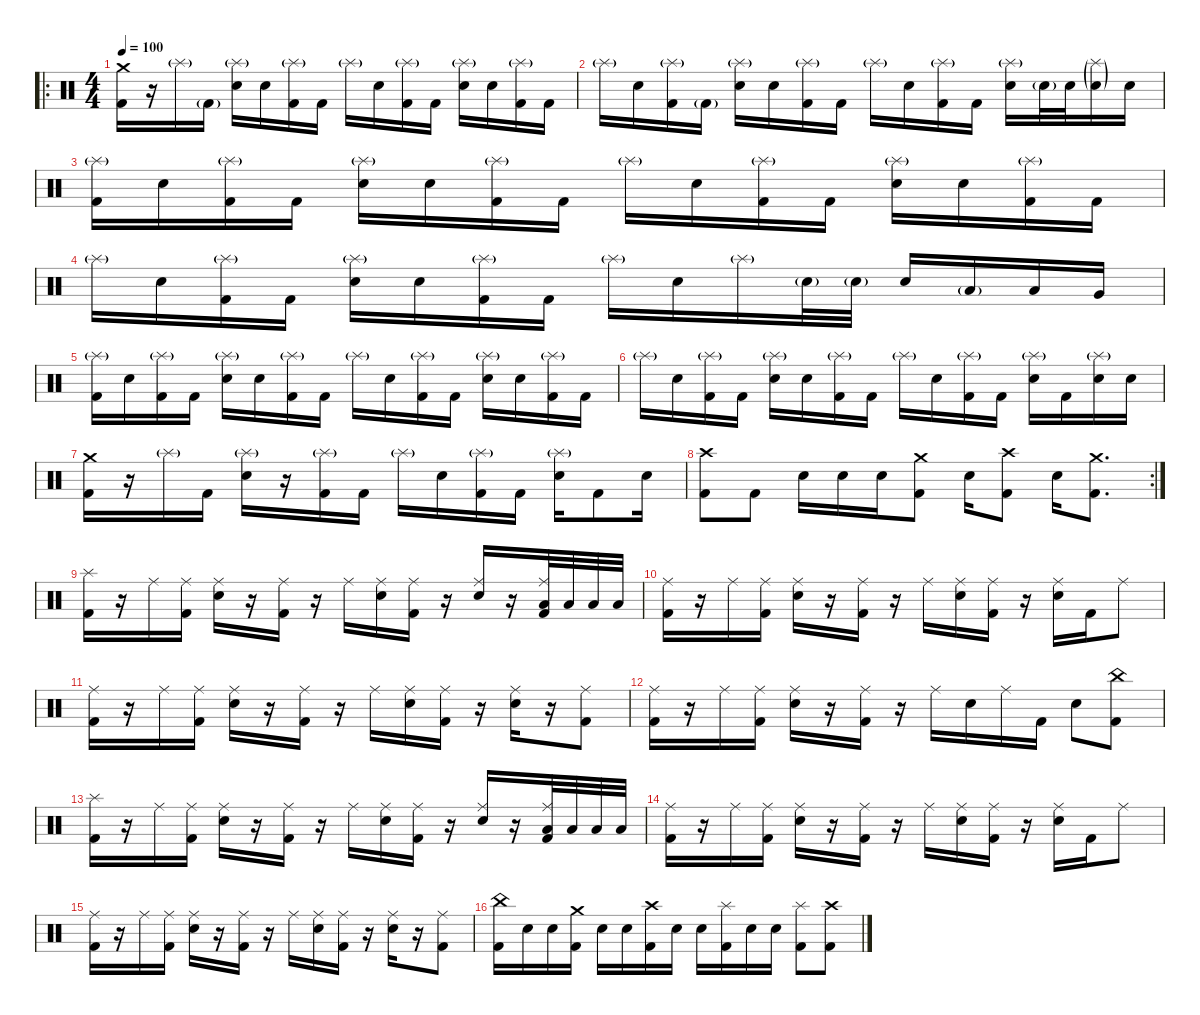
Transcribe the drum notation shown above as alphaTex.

\defaultSystemsLayout 4
\hideDynamics
\bracketExtendMode nobrackets
\singleTrackTrackNamePolicy hidden
\multiTrackTrackNamePolicy hidden
\firstSystemTrackNameMode fullname
\firstSystemTrackNameOrientation horizontal
\otherSystemsTrackNameOrientation horizontal
\track ("Drums" "drm.") {instrument percussion}
\staff {score}
\articulation defaults
\ro
\ts (4 4)
\tempo 100
\clef neutral
\ks c
("Crash medium (hit)" "Kick (hit) 2").16{dy f beam Down} r.16{beam Down} "Splash (hit)"{g}.16{dy mf beam Down} "Kick (hit) 2"{g}.16{beam Down} ("Splash (hit)"{g} "Snare (hit) 2").16{dy f beam Down} "Snare (hit) 2".16{beam Down} ("Splash (hit)"{g} "Kick (hit) 2").16{beam Down} "Kick (hit) 2".16{beam Down} "Splash (hit)"{g}.16{dy mf beam Down} "Snare (hit) 2".16{dy f beam Down} ("Splash (hit)"{g} "Kick (hit) 2").16{beam Down} "Kick (hit) 2".16{beam Down} ("Splash (hit)"{g} "Snare (hit) 2").16{beam Down} "Snare (hit) 2".16{beam Down} ("Splash (hit)"{g} "Kick (hit) 2").16{beam Down} "Kick (hit) 2".16{beam Down} |
"Splash (hit)"{g}.16{dy mf beam Down} "Snare (hit) 2".16{dy f beam Down} ("Splash (hit)"{g} "Kick (hit) 2").16{beam Down} "Kick (hit) 2"{g}.16{dy mf beam Down} ("Splash (hit)"{g} "Snare (hit) 2").16{dy f beam Down} "Snare (hit) 2".16{beam Down} ("Splash (hit)"{g} "Kick (hit) 2").16{beam Down} "Kick (hit) 2".16{beam Down} "Splash (hit)"{g}.16{dy mf beam Down} "Snare (hit) 2".16{dy f beam Down} ("Splash (hit)"{g} "Kick (hit) 2").16{beam Down} "Kick (hit) 2".16{beam Down} ("Splash (hit)"{g} "Snare (hit) 2").16{beam Down} "Snare (hit) 2"{g}.32{beam Down} "Snare (hit) 2".32{beam Down} ("Splash (hit)"{g} "Snare (hit) 2"{g}).16{dy mf beam Down} "Snare (hit) 2".16{dy f beam Down} |
("Splash (hit)"{g} "Kick (hit) 2").16{beam Down} "Snare (hit) 2".16{beam Down} ("Splash (hit)"{g} "Kick (hit) 2").16{beam Down} "Kick (hit) 2".16{beam Down} ("Splash (hit)"{g} "Snare (hit) 2").16{beam Down} "Snare (hit) 2".16{beam Down} ("Splash (hit)"{g} "Kick (hit) 2").16{beam Down} "Kick (hit) 2".16{beam Down} "Splash (hit)"{g}.16{dy mf beam Down} "Snare (hit) 2".16{dy f beam Down} ("Splash (hit)"{g} "Kick (hit) 2").16{beam Down} "Kick (hit) 2".16{beam Down} ("Splash (hit)"{g} "Snare (hit) 2").16{beam Down} "Snare (hit) 2".16{beam Down} ("Splash (hit)"{g} "Kick (hit) 2").16{beam Down} "Kick (hit) 2".16{beam Down} |
"Splash (hit)"{g}.16{dy mf beam Down} "Snare (hit) 2".16{dy f beam Down} ("Splash (hit)"{g} "Kick (hit) 2").16{beam Down} "Kick (hit) 2".16{beam Down} ("Splash (hit)"{g} "Snare (hit) 2").16{beam Down} "Snare (hit) 2".16{beam Down} ("Splash (hit)"{g} "Kick (hit) 2").16{beam Down} "Kick (hit) 2".16{beam Down} "Splash (hit)"{g}.16{dy mf beam Down} "Snare (hit) 2".16{dy f beam Down} "Splash (hit)"{g}.16{dy mf beam Down} "Snare (hit) 2"{g}.32{dy f beam Down} "Snare (hit) 2"{g}.32{beam Down} "Snare (hit) 2".16{beam Up} "Low Tom (hit)"{g}.16{beam Up} "Low Tom (hit)".16{beam Up} "Very Low Tom (hit)".16{beam Up} |
("Splash (hit)"{g} "Kick (hit) 2").16{beam Down} "Snare (hit) 2".16{beam Down} ("Splash (hit)"{g} "Kick (hit) 2").16{beam Down} "Kick (hit) 2".16{beam Down} ("Splash (hit)"{g} "Snare (hit) 2").16{beam Down} "Snare (hit) 2".16{beam Down} ("Splash (hit)"{g} "Kick (hit) 2").16{beam Down} "Kick (hit) 2".16{beam Down} "Splash (hit)"{g}.16{dy mf beam Down} "Snare (hit) 2".16{dy f beam Down} ("Splash (hit)"{g} "Kick (hit) 2").16{beam Down} "Kick (hit) 2".16{beam Down} ("Splash (hit)"{g} "Snare (hit) 2").16{beam Down} "Snare (hit) 2".16{beam Down} ("Splash (hit)"{g} "Kick (hit) 2").16{beam Down} "Kick (hit) 2".16{beam Down} |
"Splash (hit)"{g}.16{dy mf beam Down} "Snare (hit) 2".16{dy f beam Down} ("Splash (hit)"{g} "Kick (hit) 2").16{beam Down} "Kick (hit) 2".16{beam Down} ("Splash (hit)"{g} "Snare (hit) 2").16{beam Down} "Snare (hit) 2".16{beam Down} ("Splash (hit)"{g} "Kick (hit) 2").16{beam Down} "Kick (hit) 2".16{beam Down} "Splash (hit)"{g}.16{dy mf beam Down} "Snare (hit) 2".16{dy f beam Down} ("Splash (hit)"{g} "Kick (hit) 2").16{beam Down} "Kick (hit) 2".16{beam Down} ("Splash (hit)"{g} "Snare (hit) 2").16{beam Down} "Kick (hit) 2".16{beam Down} ("Splash (hit)"{g} "Snare (hit) 2").16{beam Down} "Snare (hit) 2".16{beam Down} |
("Crash medium (hit)" "Kick (hit) 2").16{beam Down} r.16{beam Down} "Splash (hit)"{g}.16{dy mf beam Down} "Kick (hit) 2".16{dy f beam Down} ("Splash (hit)"{g} "Snare (hit) 2").16{beam Down} r.16{beam Down} ("Splash (hit)"{g} "Kick (hit) 2").16{beam Down} "Kick (hit) 2".16{beam Down} "Splash (hit)"{g}.16{dy mf beam Down} "Snare (hit) 2".16{dy f beam Down} ("Splash (hit)"{g} "Kick (hit) 2").16{beam Down} "Kick (hit) 2".16{beam Down} ("Splash (hit)"{g} "Snare (hit) 2").16{beam Down} "Kick (hit) 2".8{beam Down} "Snare (hit) 2".16{beam Down} |
\rc 2
("Crash high (hit)" "Kick (hit) 2").8{beam Down} "Kick (hit) 2".8{beam Down} "Snare (hit) 2".16{beam Down} "Snare (hit) 2".16{beam Down} "Snare (hit) 2".16{beam Down} ("Crash medium (hit)" "Kick (hit) 2").8{beam Down} "Snare (hit) 2".16{beam Down} ("Crash high (hit)" "Kick (hit) 2").8{beam Down} "Snare (hit) 2".16{beam Down} ("Crash medium (hit)" "Kick (hit) 2").8{d beam Down} |
("Splash (hit)" "Kick (hit) 2").16{beam Down} r.16{beam Down} "Ride (middle)".16{beam Down} ("Ride (middle)" "Kick (hit) 2").16{beam Down} ("Ride (middle)" "Snare (hit) 2").16{beam Down} r.16{beam Down} ("Ride (middle)" "Kick (hit) 2").16{beam Down} r.16{beam Down} "Ride (middle)".16{beam Down} ("Ride (middle)" "Snare (hit) 2").16{beam Down} ("Ride (middle)" "Kick (hit) 2").16{beam Down} r.16{beam Down} ("Ride (middle)" "Snare (hit) 2").16{beam Up} r.16{beam Up} ("Ride (middle)" "Low Floor Tom (hit)" "Kick (hit) 2").32{beam Up} "Low Floor Tom (hit)".32{dy mf beam Up} "Low Floor Tom (hit)".32{beam Up} "Low Floor Tom (hit)".32{dy f beam Up} |
("Ride (middle)" "Kick (hit) 2").16{beam Down} r.16{beam Down} "Ride (middle)".16{beam Down} ("Ride (middle)" "Kick (hit) 2").16{beam Down} ("Ride (middle)" "Snare (hit) 2").16{beam Down} r.16{beam Down} ("Ride (middle)" "Kick (hit) 2").16{beam Down} r.16{beam Down} "Ride (middle)".16{beam Down} ("Ride (middle)" "Snare (hit) 2").16{beam Down} ("Ride (middle)" "Kick (hit) 2").16{beam Down} r.16{beam Down} ("Ride (middle)" "Snare (hit) 2").16{beam Down} "Kick (hit) 2".16{beam Down} "Ride (middle)".8{beam Down} |
("Ride (middle)" "Kick (hit) 2").16{beam Down} r.16{beam Down} "Ride (middle)".16{beam Down} ("Ride (middle)" "Kick (hit) 2").16{beam Down} ("Ride (middle)" "Snare (hit) 2").16{beam Down} r.16{beam Down} ("Ride (middle)" "Kick (hit) 2").16{beam Down} r.16{beam Down} "Ride (middle)".16{beam Down} ("Ride (middle)" "Snare (hit) 2").16{beam Down} ("Ride (middle)" "Kick (hit) 2").16{beam Down} r.16{beam Down} ("Ride (middle)" "Snare (hit) 2").16{beam Down} r.16{beam Down} ("Ride (middle)" "Kick (hit) 2").8{beam Down} |
("Ride (middle)" "Kick (hit) 2").16{beam Down} r.16{beam Down} "Ride (middle)".16{beam Down} ("Ride (middle)" "Kick (hit) 2").16{beam Down} ("Ride (middle)" "Snare (hit) 2").16{beam Down} r.16{beam Down} ("Ride (middle)" "Kick (hit) 2").16{beam Down} r.16{beam Down} "Ride (middle)".16{beam Down} "Snare (hit) 2".16{beam Down} "Ride (middle)".16{beam Down} "Kick (hit) 2".16{beam Down} "Snare (hit) 2".8{beam Down} ("China (hit)" "Kick (hit) 2").8{beam Down} |
("Splash (hit)" "Kick (hit) 2").16{beam Down} r.16{beam Down} "Ride (middle)".16{beam Down} ("Ride (middle)" "Kick (hit) 2").16{beam Down} ("Ride (middle)" "Snare (hit) 2").16{beam Down} r.16{beam Down} ("Ride (middle)" "Kick (hit) 2").16{beam Down} r.16{beam Down} "Ride (middle)".16{beam Down} ("Ride (middle)" "Snare (hit) 2").16{beam Down} ("Ride (middle)" "Kick (hit) 2").16{beam Down} r.16{beam Down} ("Ride (middle)" "Snare (hit) 2").16{beam Up} r.16{beam Up} ("Ride (middle)" "Low Floor Tom (hit)" "Kick (hit) 2").32{beam Up} "Low Floor Tom (hit)".32{dy mf beam Up} "Low Floor Tom (hit)".32{beam Up} "Low Floor Tom (hit)".32{dy f beam Up} |
("Ride (middle)" "Kick (hit) 2").16{beam Down} r.16{beam Down} "Ride (middle)".16{beam Down} ("Ride (middle)" "Kick (hit) 2").16{beam Down} ("Ride (middle)" "Snare (hit) 2").16{beam Down} r.16{beam Down} ("Ride (middle)" "Kick (hit) 2").16{beam Down} r.16{beam Down} "Ride (middle)".16{beam Down} ("Ride (middle)" "Snare (hit) 2").16{beam Down} ("Ride (middle)" "Kick (hit) 2").16{beam Down} r.16{beam Down} ("Ride (middle)" "Snare (hit) 2").16{beam Down} "Kick (hit) 2".16{beam Down} "Ride (middle)".8{beam Down} |
("Ride (middle)" "Kick (hit) 2").16{beam Down} r.16{beam Down} "Ride (middle)".16{beam Down} ("Ride (middle)" "Kick (hit) 2").16{beam Down} ("Ride (middle)" "Snare (hit) 2").16{beam Down} r.16{beam Down} ("Ride (middle)" "Kick (hit) 2").16{beam Down} r.16{beam Down} "Ride (middle)".16{beam Down} ("Ride (middle)" "Snare (hit) 2").16{beam Down} ("Ride (middle)" "Kick (hit) 2").16{beam Down} r.16{beam Down} ("Ride (middle)" "Snare (hit) 2").16{beam Down} r.16{beam Down} ("Ride (middle)" "Kick (hit) 2").8{beam Down} |
("China (hit)" "Kick (hit) 2").16{beam Down} "Snare (hit) 2".16{beam Down} "Snare (hit) 2".16{beam Down} ("Crash medium (hit)" "Kick (hit) 2").16{beam Down} "Snare (hit) 2".16{beam Down} "Snare (hit) 2".16{beam Down} ("Crash high (hit)" "Kick (hit) 2").16{beam Down} "Snare (hit) 2".16{beam Down} "Snare (hit) 2".16{beam Down} ("Splash (hit)" "Kick (hit) 2").16{beam Down} "Snare (hit) 2".16{beam Down} "Snare (hit) 2".16{beam Down} ("Splash (hit)" "Kick (hit) 2").8{beam Down} ("Crash high (hit)" "Kick (hit) 2").8{beam Down}
